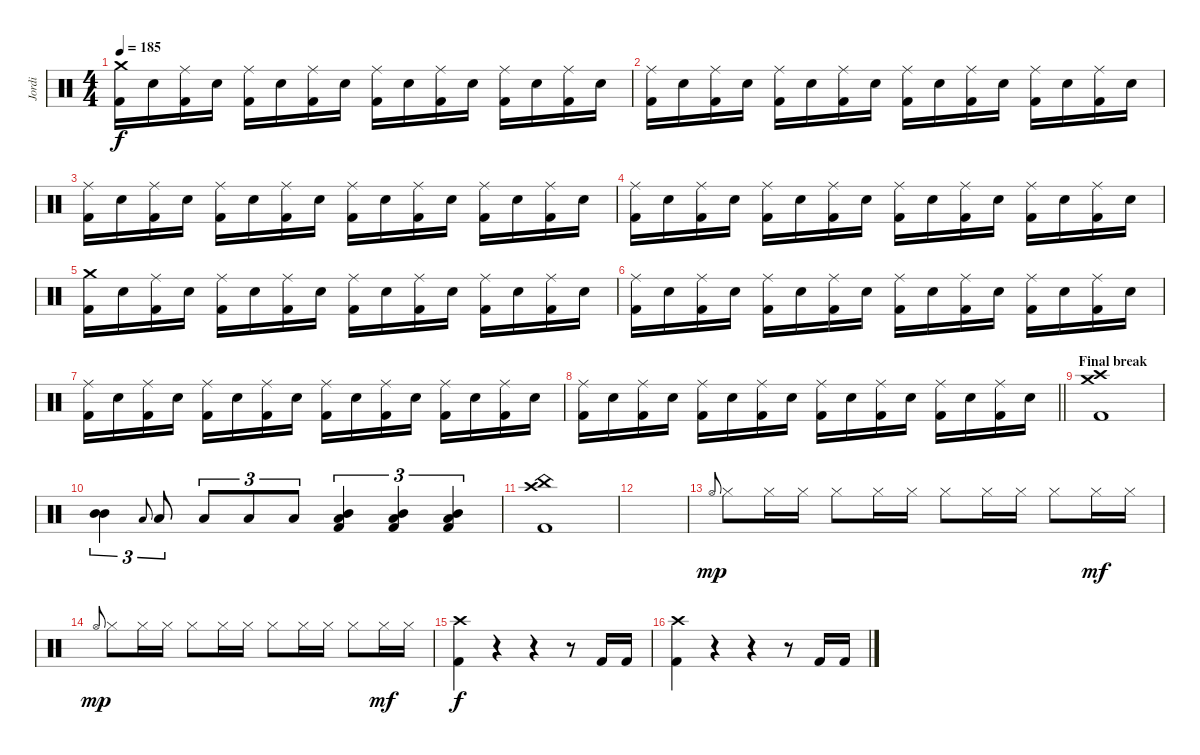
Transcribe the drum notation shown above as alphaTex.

\track ("Jordi" "Jordi") {instrument percussion}
\staff {score}
\articulation defaults
\ts (4 4)
\tempo 185
\clef neutral
\ks c
("Crash medium (hit)" "Kick (hit) 2").16{dy f} "Snare (hit) 2".16 ("Ride (middle)" "Kick (hit) 2").16 "Snare (hit) 2".16 ("Ride (middle)" "Kick (hit) 2").16 "Snare (hit) 2".16 ("Ride (middle)" "Kick (hit) 2").16 "Snare (hit) 2".16 ("Ride (middle)" "Kick (hit) 2").16 "Snare (hit) 2".16 ("Ride (middle)" "Kick (hit) 2").16 "Snare (hit) 2".16 ("Ride (middle)" "Kick (hit) 2").16 "Snare (hit) 2".16 ("Ride (middle)" "Kick (hit) 2").16 "Snare (hit) 2".16 |
("Ride (middle)" "Kick (hit) 2").16 "Snare (hit) 2".16 ("Ride (middle)" "Kick (hit) 2").16 "Snare (hit) 2".16 ("Ride (middle)" "Kick (hit) 2").16 "Snare (hit) 2".16 ("Ride (middle)" "Kick (hit) 2").16 "Snare (hit) 2".16 ("Ride (middle)" "Kick (hit) 2").16 "Snare (hit) 2".16 ("Ride (middle)" "Kick (hit) 2").16 "Snare (hit) 2".16 ("Ride (middle)" "Kick (hit) 2").16 "Snare (hit) 2".16 ("Ride (middle)" "Kick (hit) 2").16 "Snare (hit) 2".16 |
("Ride (middle)" "Kick (hit) 2").16 "Snare (hit) 2".16 ("Ride (middle)" "Kick (hit) 2").16 "Snare (hit) 2".16 ("Ride (middle)" "Kick (hit) 2").16 "Snare (hit) 2".16 ("Ride (middle)" "Kick (hit) 2").16 "Snare (hit) 2".16 ("Ride (middle)" "Kick (hit) 2").16 "Snare (hit) 2".16 ("Ride (middle)" "Kick (hit) 2").16 "Snare (hit) 2".16 ("Ride (middle)" "Kick (hit) 2").16 "Snare (hit) 2".16 ("Ride (middle)" "Kick (hit) 2").16 "Snare (hit) 2".16 |
("Ride (middle)" "Kick (hit) 2").16 "Snare (hit) 2".16 ("Ride (middle)" "Kick (hit) 2").16 "Snare (hit) 2".16 ("Ride (middle)" "Kick (hit) 2").16 "Snare (hit) 2".16 ("Ride (middle)" "Kick (hit) 2").16 "Snare (hit) 2".16 ("Ride (middle)" "Kick (hit) 2").16 "Snare (hit) 2".16 ("Ride (middle)" "Kick (hit) 2").16 "Snare (hit) 2".16 ("Ride (middle)" "Kick (hit) 2").16 "Snare (hit) 2".16 ("Ride (middle)" "Kick (hit) 2").16 "Snare (hit) 2".16 |
("Crash medium (hit)" "Kick (hit) 2").16 "Snare (hit) 2".16 ("Ride (middle)" "Kick (hit) 2").16 "Snare (hit) 2".16 ("Ride (middle)" "Kick (hit) 2").16 "Snare (hit) 2".16 ("Ride (middle)" "Kick (hit) 2").16 "Snare (hit) 2".16 ("Ride (middle)" "Kick (hit) 2").16 "Snare (hit) 2".16 ("Ride (middle)" "Kick (hit) 2").16 "Snare (hit) 2".16 ("Ride (middle)" "Kick (hit) 2").16 "Snare (hit) 2".16 ("Ride (middle)" "Kick (hit) 2").16 "Snare (hit) 2".16 |
("Ride (middle)" "Kick (hit) 2").16 "Snare (hit) 2".16 ("Ride (middle)" "Kick (hit) 2").16 "Snare (hit) 2".16 ("Ride (middle)" "Kick (hit) 2").16 "Snare (hit) 2".16 ("Ride (middle)" "Kick (hit) 2").16 "Snare (hit) 2".16 ("Ride (middle)" "Kick (hit) 2").16 "Snare (hit) 2".16 ("Ride (middle)" "Kick (hit) 2").16 "Snare (hit) 2".16 ("Ride (middle)" "Kick (hit) 2").16 "Snare (hit) 2".16 ("Ride (middle)" "Kick (hit) 2").16 "Snare (hit) 2".16 |
("Ride (middle)" "Kick (hit) 2").16 "Snare (hit) 2".16 ("Ride (middle)" "Kick (hit) 2").16 "Snare (hit) 2".16 ("Ride (middle)" "Kick (hit) 2").16 "Snare (hit) 2".16 ("Ride (middle)" "Kick (hit) 2").16 "Snare (hit) 2".16 ("Ride (middle)" "Kick (hit) 2").16 "Snare (hit) 2".16 ("Ride (middle)" "Kick (hit) 2").16 "Snare (hit) 2".16 ("Ride (middle)" "Kick (hit) 2").16 "Snare (hit) 2".16 ("Ride (middle)" "Kick (hit) 2").16 "Snare (hit) 2".16 |
\barLineRight lightlight
("Ride (middle)" "Kick (hit) 2").16 "Snare (hit) 2".16 ("Ride (middle)" "Kick (hit) 2").16 "Snare (hit) 2".16 ("Ride (middle)" "Kick (hit) 2").16 "Snare (hit) 2".16 ("Ride (middle)" "Kick (hit) 2").16 "Snare (hit) 2".16 ("Ride (middle)" "Kick (hit) 2").16 "Snare (hit) 2".16 ("Ride (middle)" "Kick (hit) 2").16 "Snare (hit) 2".16 ("Ride (middle)" "Kick (hit) 2").16 "Snare (hit) 2".16 ("Ride (middle)" "Kick (hit) 2").16 "Snare (hit) 2".16 |
\section ("" "Final break")
("Crash high (hit)" "Crash medium (hit)" "Kick (hit) 2").1 |
("Mid Tom (hit)" "Mid Tom (hit)").4{tu (3 2)} "Low Tom (hit)".8{gr onbeat} "Low Tom (hit)".8{tu (3 2)} "Low Tom (hit)".8{tu (3 2)} "Low Tom (hit)".8{tu (3 2)} "Low Tom (hit)".8{tu (3 2)} ("Mid Tom (hit)" "Low Tom (hit)" "Kick (hit) 2").4{tu (3 2)} ("Mid Tom (hit)" "Low Tom (hit)" "Kick (hit) 2").4{tu (3 2)} ("Mid Tom (hit)" "Low Tom (hit)" "Kick (hit) 2").4{tu (3 2)} |
("Crash high (hit)" "China (hit)" "Kick (hit) 2").1 |
|
"Hi-Hat (open)".8{gr onbeat dy mp} "Hi-Hat (closed)".8 "Hi-Hat (closed)".16 "Hi-Hat (closed)".16 "Hi-Hat (closed)".8 "Hi-Hat (closed)".16 "Hi-Hat (closed)".16 "Hi-Hat (closed)".8 "Hi-Hat (closed)".16 "Hi-Hat (closed)".16 "Hi-Hat (closed)".8 "Hi-Hat (closed)".16{dy mf} "Hi-Hat (closed)".16 |
"Hi-Hat (open)".8{gr onbeat dy mp} "Hi-Hat (closed)".8 "Hi-Hat (closed)".16 "Hi-Hat (closed)".16 "Hi-Hat (closed)".8 "Hi-Hat (closed)".16 "Hi-Hat (closed)".16 "Hi-Hat (closed)".8 "Hi-Hat (closed)".16 "Hi-Hat (closed)".16 "Hi-Hat (closed)".8 "Hi-Hat (closed)".16{dy mf} "Hi-Hat (closed)".16 |
("Crash high (hit)" "Kick (hit) 2").4{dy f} r.4 r.4 r.8 "Kick (hit) 2".16 "Kick (hit) 2".16 |
("Crash high (hit)" "Kick (hit) 2").4 r.4 r.4 r.8 "Kick (hit) 2".16 "Kick (hit) 2".16
